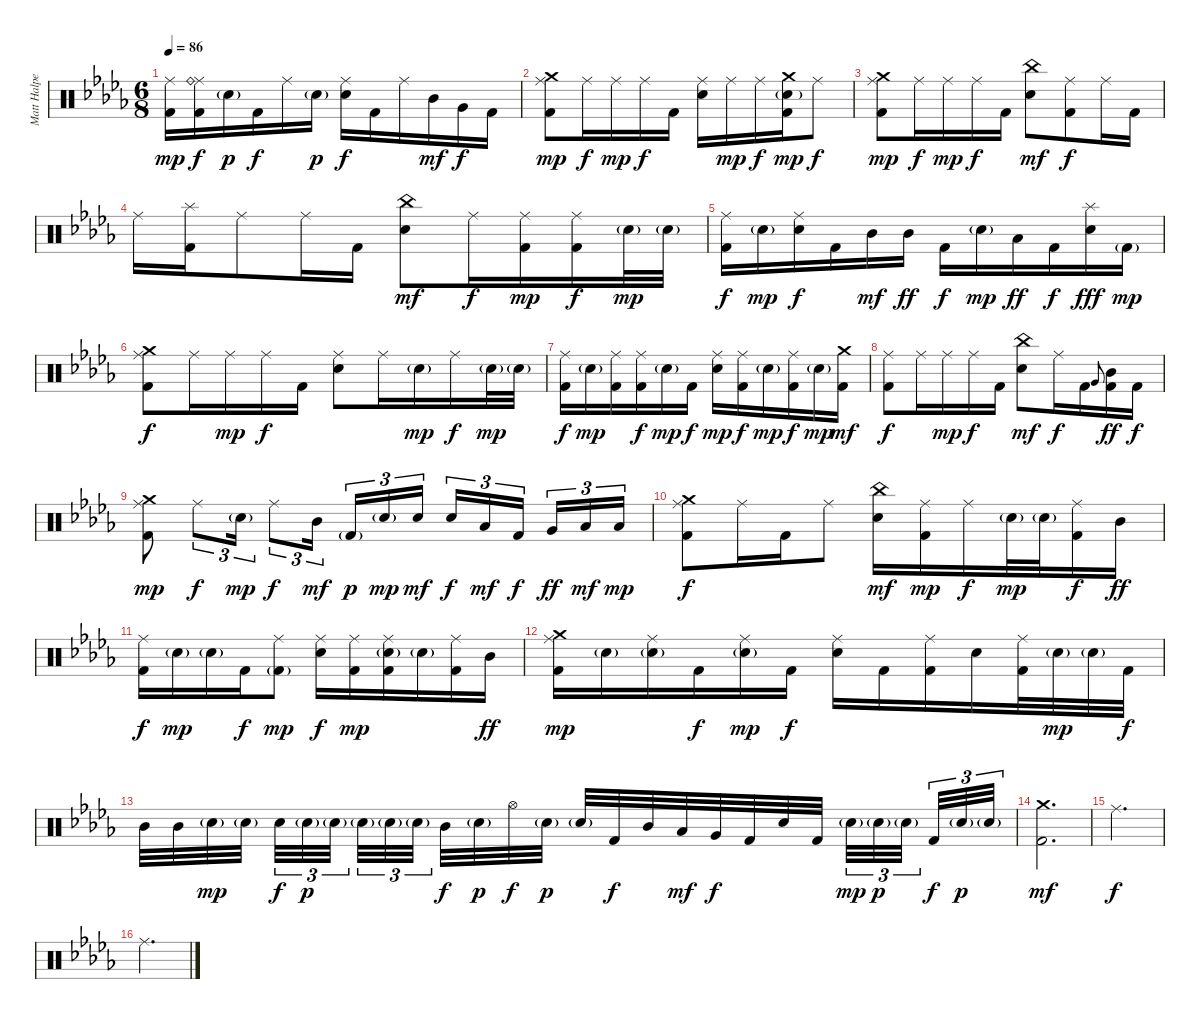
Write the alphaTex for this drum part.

\track ("Matt Halpern - Drums" "Matt Halpe") {instrument percussion}
\staff {score}
\articulation defaults
\ts (6 8)
\tempo 86
\clef neutral
\ks bbminor
("Ride (middle)" "Kick (hit) 2").16{dy mp} ("Ride (middle)" "Ride (bell)" "Kick (hit) 2").16{dy f} "Snare (hit) 2"{g}.16{dy p} "Kick (hit) 2".16{dy f} "Ride (middle)".16 "Snare (hit) 2"{g}.16{dy p} ("Ride (middle)" "Snare (hit) 2").16{dy f} "Kick (hit) 2".16 "Ride (middle)".16 "Mid Tom (hit)".16{dy mf} "Very Low Tom (hit)".16{dy f} "Kick (hit) 2".16 |
("Ride (middle)" "Crash medium (hit)" "Kick (hit) 2").8{dy mp} "Ride (middle)".16{dy f} "Ride (middle)".16{dy mp} "Ride (middle)".16{dy f} "Kick (hit) 2".16 ("Ride (middle)" "Snare (hit) 2").16 "Ride (middle)".16{dy mp} "Ride (middle)".16{dy f} ("Crash medium (hit)" "Snare (hit) 2"{g} "Kick (hit) 2").16{dy mp} "Ride (middle)".8{dy f} |
("Ride (middle)" "Crash medium (hit)" "Kick (hit) 2").8{dy mp} "Ride (middle)".16{dy f} "Ride (middle)".16{dy mp} "Ride (middle)".16{dy f} "Kick (hit) 2".16 ("China (hit)" "Snare (hit) 2").8{dy mf} ("Ride (middle)" "Kick (hit) 2").8{dy f} "Ride (middle)".16 "Kick (hit) 2".16 |
"Ride (middle)".16 ("Splash (hit)" "Kick (hit) 2").16 "Ride (middle)".8 "Ride (middle)".16 "Kick (hit) 2".16 ("China (hit)" "Snare (hit) 2").8{dy mf} "Ride (middle)".16{dy f} ("Ride (middle)" "Kick (hit) 2").16{dy mp} ("Ride (middle)" "Kick (hit) 2").16{dy f} "Snare (hit) 2"{g}.32{dy mp} "Snare (hit) 2"{g}.32 |
("Ride (middle)" "Kick (hit) 2").16{dy f} "Snare (hit) 2"{g}.16{dy mp} ("Ride (middle)" "Snare (hit) 2").16{dy f} "Kick (hit) 2".16 "Mid Tom (hit)".16{dy mf} "Mid Tom (hit)".16{dy ff} "Kick (hit) 2".16{dy f} "Snare (hit) 2"{g}.16{dy mp} "Low Tom (hit)".16{dy ff} "Kick (hit) 2".16{dy f} ("Splash (hit)" "Snare (hit) 2").16{dy fff} "Kick (hit) 2"{g}.16{dy mp} |
("Ride (middle)" "Crash medium (hit)" "Kick (hit) 2").8{dy f} "Ride (middle)".16 "Ride (middle)".16{dy mp} "Ride (middle)".16{dy f} "Kick (hit) 2".16 ("Ride (middle)" "Snare (hit) 2").8 "Ride (middle)".16 "Snare (hit) 2"{g}.16{dy mp} "Ride (middle)".16{dy f} "Snare (hit) 2"{g}.32{dy mp} "Snare (hit) 2"{g}.32 |
("Ride (middle)" "Kick (hit) 2").16{dy f} "Snare (hit) 2"{g}.16{dy mp} ("Ride (middle)" "Kick (hit) 2").16 ("Ride (middle)" "Kick (hit) 2").16{dy f} "Snare (hit) 2"{g}.16{dy mp} "Kick (hit) 2".16{dy f} ("Ride (middle)" "Snare (hit) 2").16{dy mp} ("Ride (middle)" "Kick (hit) 2").16{dy f} "Snare (hit) 2"{g}.16{dy mp} ("Ride (middle)" "Kick (hit) 2").16{dy f} "Snare (hit) 2"{g}.16{dy mp} ("Crash medium (hit)" "Kick (hit) 2").16{dy mf} |
("Ride (middle)" "Kick (hit) 2").8{dy f} "Ride (middle)".16 "Ride (middle)".16{dy mp} "Ride (middle)".16{dy f} "Kick (hit) 2".16 ("China (hit)" "Snare (hit) 2").8{dy mf} "Ride (middle)".16{dy f} "Kick (hit) 2".16 "Very Low Tom (hit)".8{gr onbeat} ("Mid Tom (hit)" "Kick (hit) 2").16{dy ff} "Kick (hit) 2".16{dy f} |
("Ride (middle)" "Crash medium (hit)" "Kick (hit) 2").8{dy mp} "Ride (middle)".8{tu (3 2) dy f} "Snare (hit) 2"{g}.16{tu (3 2) dy mp} "Ride (middle)".8{tu (3 2) dy f} "Mid Tom (hit)".16{tu (3 2) dy mf} "Kick (hit) 2"{g}.16{tu (3 2) dy p} "Snare (hit) 2"{g}.16{tu (3 2) dy mp} "Snare (hit) 2".16{tu (3 2) dy mf beam splitsecondary} "Snare (hit) 2".16{tu (3 2) dy f} "Low Tom (hit)".16{tu (3 2) dy mf} "Kick (hit) 2".16{tu (3 2) dy f beam splitsecondary} "Very Low Tom (hit)".16{tu (3 2) dy ff} "Low Floor Tom (hit)".16{tu (3 2) dy mf} "Low Floor Tom (hit)".16{tu (3 2) dy mp} |
("Ride (middle)" "Crash medium (hit)" "Kick (hit) 2").8{dy f} "Ride (middle)".16 "Kick (hit) 2".16 "Ride (middle)".8 ("China (hit)" "Snare (hit) 2").16{dy mf} ("Ride (middle)" "Kick (hit) 2").16{dy mp} "Ride (middle)".16{dy f} "Snare (hit) 2"{g}.32{dy mp} "Snare (hit) 2"{g}.32 ("Ride (middle)" "Kick (hit) 2").16{dy f} "Mid Tom (hit)".16{dy ff} |
("Ride (middle)" "Kick (hit) 2").16{dy f} "Snare (hit) 2"{g}.16{dy mp} "Snare (hit) 2"{g}.16 "Kick (hit) 2".16{dy f} ("Ride (middle)" "Kick (hit) 2"{g}).8{dy mp} ("Ride (middle)" "Snare (hit) 2").16{dy f} ("Ride (middle)" "Kick (hit) 2").16{dy mp} ("Ride (middle)" "Snare (hit) 2"{g} "Kick (hit) 2").16 "Snare (hit) 2"{g}.16 ("Ride (middle)" "Kick (hit) 2").16 "Mid Tom (hit)".16{dy ff} |
("Ride (middle)" "Crash medium (hit)" "Kick (hit) 2").16{dy mp} "Snare (hit) 2"{g}.16 ("Ride (middle)" "Snare (hit) 2"{g}).16 "Kick (hit) 2".16{dy f} ("Ride (middle)" "Snare (hit) 2"{g}).16{dy mp} "Kick (hit) 2".16{dy f} ("Ride (middle)" "Snare (hit) 2").16 "Kick (hit) 2".16 ("Ride (middle)" "Kick (hit) 2").16 "Snare (hit) 2".16 ("Ride (middle)" "Kick (hit) 2").32 "Snare (hit) 2"{g}.32{dy mp} "Snare (hit) 2"{g}.32 "Kick (hit) 2".32{dy f} |
"Mid Tom (hit)".32 "Mid Tom (hit)".32 "Snare (hit) 2"{g}.32{dy mp} "Snare (hit) 2"{g}.32{beam splitsecondary} "Snare (hit) 2".32{tu (3 2) dy f} "Snare (hit) 2"{g}.32{tu (3 2) dy p} "Snare (hit) 2"{g}.32{tu (3 2) beam splitsecondary} "Snare (hit) 2"{g}.32{tu (3 2)} "Snare (hit) 2"{g}.32{tu (3 2)} "Snare (hit) 2"{g}.32{tu (3 2) beam splitsecondary} "Mid Tom (hit)".32{dy f} "Snare (hit) 2"{g}.32{dy p} "Hi-Hat (open)".32{dy f} "Snare (hit) 2"{g}.32{dy p} "Snare (hit) 2"{g}.32 "Kick (hit) 2".32{dy f} "Mid Tom (hit)".32 "Low Tom (hit)".32{dy mf} "Very Low Tom (hit)".32{dy f} "Kick (hit) 2".32 "Snare (hit) 2".32 "Kick (hit) 2".32{beam splitsecondary} "Snare (hit) 2"{g}.32{tu (3 2) dy mp} "Snare (hit) 2"{g}.32{tu (3 2) dy p} "Snare (hit) 2"{g}.32{tu (3 2) beam splitsecondary} "Kick (hit) 2".32{tu (3 2) dy f} "Snare (hit) 2"{g}.32{tu (3 2) dy p} "Snare (hit) 2"{g}.32{tu (3 2)} |
("Crash medium (hit)" "Kick (hit) 2").2{d dy mf} |
"Ride (middle)".2{d dy f} |
"Ride (middle)".2{d}
